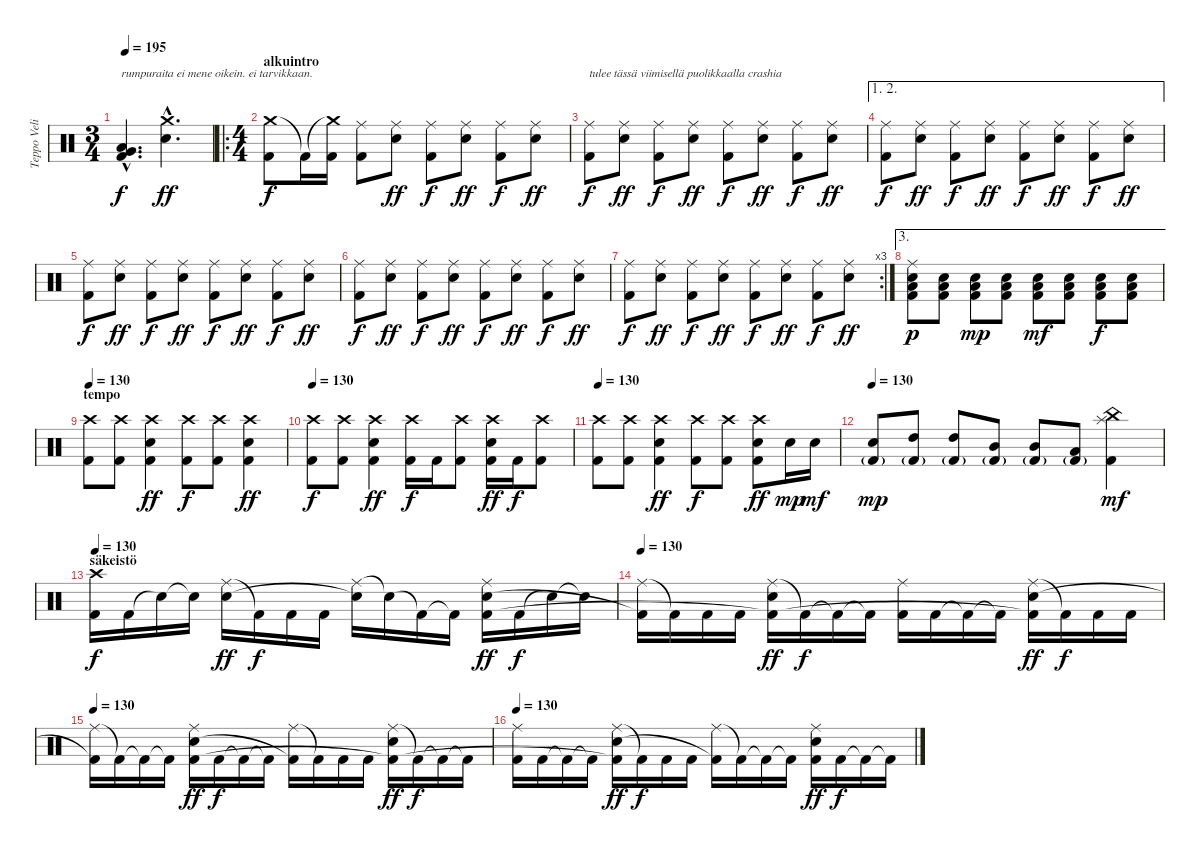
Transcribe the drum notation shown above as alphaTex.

\track ("Teppo Velin" "Teppo Veli") {instrument percussion}
\staff {score}
\articulation defaults
\ts (3 4)
\tempo 195
\clef neutral
\ks c
("Very Low Tom (hit)"{hac} "Low Floor Tom (hit)"{hac} "Kick (hit) 2"{hac}).4{d txt "rumpuraita ei mene oikein. ei tarvikkaan." dy f} ("Crash medium (hit)"{hac} "Electric Snare (hit)"{hac}).4{d dy ff} |
\ro
\ts (4 4)
\section ("" "alkuintro")
("Crash medium (hit)" "Kick (hit) 2").8{dy f} "Kick (hit) 2"{t}.16 ("Crash medium (hit)"{t} "Kick (hit) 2").16 ("Ride (middle)" "Kick (hit) 2").8 ("Ride (middle)" "Electric Snare (hit)").8{dy ff} ("Ride (middle)" "Kick (hit) 2").8{dy f} ("Ride (middle)" "Electric Snare (hit)").8{dy ff} ("Ride (middle)" "Kick (hit) 2").8{dy f} ("Ride (middle)" "Electric Snare (hit)").8{dy ff} |
("Ride (middle)" "Kick (hit) 2").8{txt "tulee tässä viimisellä puolikkaalla crashia" dy f} ("Ride (middle)" "Electric Snare (hit)").8{dy ff} ("Ride (middle)" "Kick (hit) 2").8{dy f} ("Ride (middle)" "Electric Snare (hit)").8{dy ff} ("Ride (middle)" "Kick (hit) 2").8{dy f} ("Ride (middle)" "Electric Snare (hit)").8{dy ff} ("Ride (middle)" "Kick (hit) 2").8{dy f} ("Ride (middle)" "Electric Snare (hit)").8{dy ff} |
\ae (1 2)
("Ride (middle)" "Kick (hit) 2").8{dy f} ("Ride (middle)" "Electric Snare (hit)").8{dy ff} ("Ride (middle)" "Kick (hit) 2").8{dy f} ("Ride (middle)" "Electric Snare (hit)").8{dy ff} ("Ride (middle)" "Kick (hit) 2").8{dy f} ("Ride (middle)" "Electric Snare (hit)").8{dy ff} ("Ride (middle)" "Kick (hit) 2").8{dy f} ("Ride (middle)" "Electric Snare (hit)").8{dy ff} |
("Ride (middle)" "Kick (hit) 2").8{dy f} ("Ride (middle)" "Electric Snare (hit)").8{dy ff} ("Ride (middle)" "Kick (hit) 2").8{dy f} ("Ride (middle)" "Electric Snare (hit)").8{dy ff} ("Ride (middle)" "Kick (hit) 2").8{dy f} ("Ride (middle)" "Electric Snare (hit)").8{dy ff} ("Ride (middle)" "Kick (hit) 2").8{dy f} ("Ride (middle)" "Electric Snare (hit)").8{dy ff} |
("Ride (middle)" "Kick (hit) 2").8{dy f} ("Ride (middle)" "Electric Snare (hit)").8{dy ff} ("Ride (middle)" "Kick (hit) 2").8{dy f} ("Ride (middle)" "Electric Snare (hit)").8{dy ff} ("Ride (middle)" "Kick (hit) 2").8{dy f} ("Ride (middle)" "Electric Snare (hit)").8{dy ff} ("Ride (middle)" "Kick (hit) 2").8{dy f} ("Ride (middle)" "Electric Snare (hit)").8{dy ff} |
\rc 3
("Ride (middle)" "Kick (hit) 2").8{dy f} ("Ride (middle)" "Electric Snare (hit)").8{dy ff} ("Ride (middle)" "Kick (hit) 2").8{dy f} ("Ride (middle)" "Electric Snare (hit)").8{dy ff} ("Ride (middle)" "Kick (hit) 2").8{dy f} ("Ride (middle)" "Electric Snare (hit)").8{dy ff} ("Ride (middle)" "Kick (hit) 2").8{dy f} ("Ride (middle)" "Electric Snare (hit)").8{dy ff} |
\ae 3
("Ride (middle)" "Low Floor Tom (hit)" "Electric Snare (hit)" "Kick (hit) 2").8{dy p} ("Low Floor Tom (hit)" "Electric Snare (hit)" "Kick (hit) 2").8 ("Low Floor Tom (hit)" "Electric Snare (hit)" "Kick (hit) 2").8{dy mp} ("Low Floor Tom (hit)" "Electric Snare (hit)" "Kick (hit) 2").8 ("Low Floor Tom (hit)" "Electric Snare (hit)" "Kick (hit) 2").8{dy mf} ("Low Floor Tom (hit)" "Electric Snare (hit)" "Kick (hit) 2").8 ("Low Floor Tom (hit)" "Electric Snare (hit)" "Kick (hit) 2").8{dy f} ("Low Floor Tom (hit)" "Electric Snare (hit)" "Kick (hit) 2").8 |
\section ("" "tempo")
\tempo 130
("Crash high (hit)" "Kick (hit) 2").8 ("Crash high (hit)" "Kick (hit) 2").8 ("Crash high (hit)" "Electric Snare (hit)" "Kick (hit) 2").4{dy ff} ("Crash high (hit)" "Kick (hit) 2").8{dy f} ("Crash high (hit)" "Kick (hit) 2").8 ("Crash high (hit)" "Electric Snare (hit)" "Kick (hit) 2").4{dy ff} |
\tempo 130
("Crash high (hit)" "Kick (hit) 2").8{dy f} ("Crash high (hit)" "Kick (hit) 2").8 ("Crash high (hit)" "Electric Snare (hit)" "Kick (hit) 2").4{dy ff} ("Crash high (hit)" "Kick (hit) 2").16{dy f} "Kick (hit) 2".16 ("Crash high (hit)" "Kick (hit) 2").8 ("Crash high (hit)" "Electric Snare (hit)" "Kick (hit) 2").16{dy ff} "Kick (hit) 2".16{dy f} ("Crash high (hit)" "Kick (hit) 2").8 |
\tempo 130
("Crash high (hit)" "Kick (hit) 2").8 ("Crash high (hit)" "Kick (hit) 2").8 ("Crash high (hit)" "Electric Snare (hit)" "Kick (hit) 2").4{dy ff} ("Crash high (hit)" "Kick (hit) 2").8{dy f} ("Crash high (hit)" "Kick (hit) 2").8 ("Crash high (hit)" "Electric Snare (hit)" "Kick (hit) 2").8{dy ff} "Electric Snare (hit)".16{dy mp} "Electric Snare (hit)".16{dy mf} |
\tempo 130
("Electric Snare (hit)" "Kick (hit) 2"{g}).8{dy mp} ("High Tom (hit)" "Kick (hit) 2"{g}).8 ("High Tom (hit)" "Kick (hit) 2"{g}).8 ("Mid Tom (hit)" "Kick (hit) 2"{g}).8 ("Mid Tom (hit)" "Kick (hit) 2"{g}).8 ("Low Tom (hit)" "Kick (hit) 2"{g}).8 ("China (hit)" "Splash (hit)" "Kick (hit) 2").4{dy mf} |
\section ("" "säkeistö")
\tempo 130
("Crash high (hit)" "Kick (hit) 2").16{dy f} "Kick (hit) 2".16 "Snare (hit)"{t}.16 "Snare (hit)"{t}.16 ("Ride (middle)" "Electric Snare (hit)").16{dy ff} "Kick (hit) 2"{t}.16{dy f} "Kick (hit) 2".16 "Kick (hit) 2".16 ("Ride (middle)" "Snare (hit)"{t}).16 "Snare (hit)"{t}.16 "Kick (hit) 2"{t}.16 "Kick (hit) 2"{t}.16 ("Ride (middle)" "Electric Snare (hit)" "Kick (hit) 2").16{dy ff} "Kick (hit) 2".16{dy f} "Snare (hit)"{t}.16 "Snare (hit)"{t}.16 |
\tempo 130
("Ride (middle)" "Kick (hit) 2"{t}).16 "Kick (hit) 2"{t}.16 "Kick (hit) 2".16 "Kick (hit) 2".16 ("Ride (middle)" "Electric Snare (hit)" "Kick (hit) 2"{t}).16{dy ff} "Kick (hit) 2"{t}.16{dy f} "Kick (hit) 2"{t}.16 "Kick (hit) 2"{t}.16 ("Ride (middle)" "Kick (hit) 2").16 "Kick (hit) 2".16 "Kick (hit) 2"{t}.16 "Kick (hit) 2"{t}.16 ("Ride (middle)" "Electric Snare (hit)" "Kick (hit) 2"{t}).16{dy ff} "Kick (hit) 2"{t}.16{dy f} "Kick (hit) 2".16 "Kick (hit) 2".16 |
\tempo 130
("Ride (middle)" "Kick (hit) 2"{t}).16 "Kick (hit) 2"{t}.16 "Kick (hit) 2"{t}.16 "Kick (hit) 2"{t}.16 ("Ride (middle)" "Electric Snare (hit)" "Kick (hit) 2").16{dy ff} "Kick (hit) 2".16{dy f} "Kick (hit) 2"{t}.16 "Kick (hit) 2"{t}.16 ("Ride (middle)" "Kick (hit) 2"{t}).16 "Kick (hit) 2"{t}.16 "Kick (hit) 2".16 "Kick (hit) 2".16 ("Ride (middle)" "Electric Snare (hit)" "Kick (hit) 2"{t}).16{dy ff} "Kick (hit) 2"{t}.16{dy f} "Kick (hit) 2"{t}.16 "Kick (hit) 2"{t}.16 |
\tempo 130
("Ride (middle)" "Kick (hit) 2").16 "Kick (hit) 2".16 "Kick (hit) 2"{t}.16 "Kick (hit) 2"{t}.16 ("Ride (middle)" "Electric Snare (hit)" "Kick (hit) 2"{t}).16{dy ff} "Kick (hit) 2"{t}.16{dy f} "Kick (hit) 2".16 "Kick (hit) 2".16 ("Ride (middle)" "Kick (hit) 2"{t}).16 "Kick (hit) 2"{t}.16 "Kick (hit) 2"{t}.16 "Kick (hit) 2"{t}.16 ("Ride (middle)" "Electric Snare (hit)" "Kick (hit) 2").16{dy ff} "Kick (hit) 2".16{dy f} "Kick (hit) 2"{t}.16 "Kick (hit) 2"{t}.16
